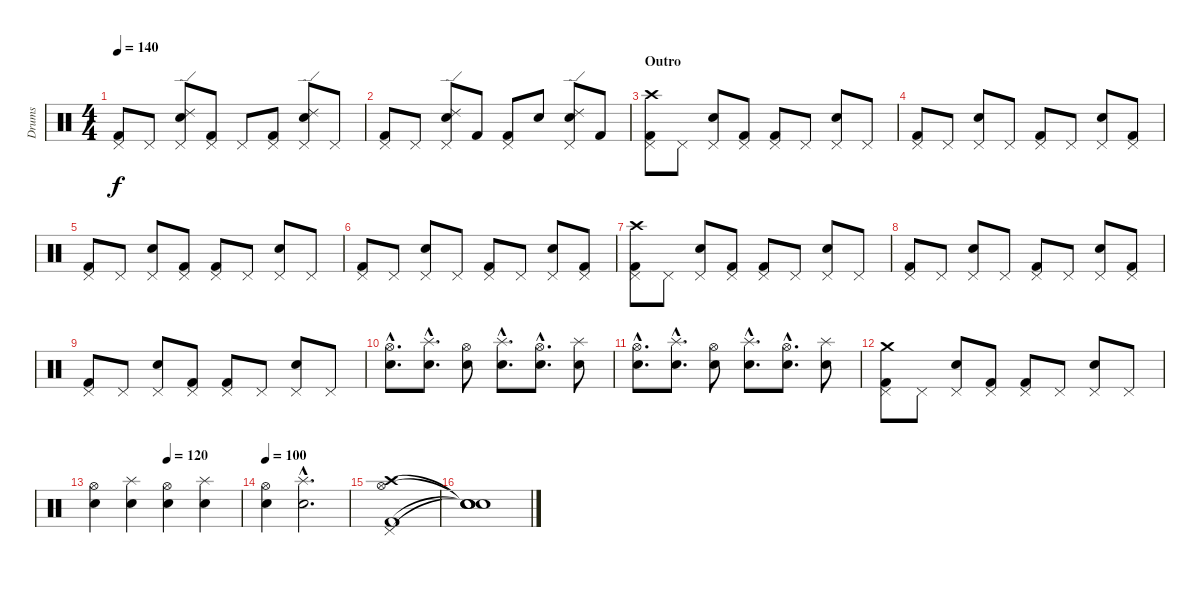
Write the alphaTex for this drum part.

\track ("Drums" "Drums") {instrument percussion}
\staff {score}
\articulation defaults
\ts (4 4)
\tempo 140
\clef neutral
\ks c
("Kick (hit) 2" "Pedal Hi-Hat (hit)").8{dy f} "Pedal Hi-Hat (hit)".8 ("Snare (hit) 2" "Pedal Hi-Hat (hit)" "Ride (edge) 2").8 ("Kick (hit) 2" "Pedal Hi-Hat (hit)").8 "Pedal Hi-Hat (hit)".8 ("Kick (hit) 2" "Pedal Hi-Hat (hit)").8 ("Snare (hit) 2" "Pedal Hi-Hat (hit)" "Ride (edge) 2").8 "Pedal Hi-Hat (hit)".8 |
("Kick (hit) 2" "Pedal Hi-Hat (hit)").8 "Pedal Hi-Hat (hit)".8 ("Snare (hit) 2" "Pedal Hi-Hat (hit)" "Ride (edge) 2").8 "Kick (hit) 2".8 ("Kick (hit) 2" "Pedal Hi-Hat (hit)").8 "Snare (hit) 2".8 ("Snare (hit) 2" "Pedal Hi-Hat (hit)" "Ride (edge) 2").8 "Kick (hit) 2".8 |
\section ("" "Outro")
("Kick (hit) 2" "Pedal Hi-Hat (hit)" "Crash high (hit)").8 "Pedal Hi-Hat (hit)".8 ("Snare (hit) 2" "Pedal Hi-Hat (hit)").8 ("Kick (hit) 2" "Pedal Hi-Hat (hit)").8 ("Kick (hit) 2" "Pedal Hi-Hat (hit)").8 "Pedal Hi-Hat (hit)".8 ("Snare (hit) 2" "Pedal Hi-Hat (hit)").8 "Pedal Hi-Hat (hit)".8 |
("Kick (hit) 2" "Pedal Hi-Hat (hit)").8 "Pedal Hi-Hat (hit)".8 ("Snare (hit) 2" "Pedal Hi-Hat (hit)").8 "Pedal Hi-Hat (hit)".8 ("Kick (hit) 2" "Pedal Hi-Hat (hit)").8 "Pedal Hi-Hat (hit)".8 ("Snare (hit) 2" "Pedal Hi-Hat (hit)").8 ("Kick (hit) 2" "Pedal Hi-Hat (hit)").8 |
("Kick (hit) 2" "Pedal Hi-Hat (hit)").8 "Pedal Hi-Hat (hit)".8 ("Snare (hit) 2" "Pedal Hi-Hat (hit)").8 ("Kick (hit) 2" "Pedal Hi-Hat (hit)").8 ("Kick (hit) 2" "Pedal Hi-Hat (hit)").8 "Pedal Hi-Hat (hit)".8 ("Snare (hit) 2" "Pedal Hi-Hat (hit)").8 "Pedal Hi-Hat (hit)".8 |
("Kick (hit) 2" "Pedal Hi-Hat (hit)").8 "Pedal Hi-Hat (hit)".8 ("Snare (hit) 2" "Pedal Hi-Hat (hit)").8 "Pedal Hi-Hat (hit)".8 ("Kick (hit) 2" "Pedal Hi-Hat (hit)").8 "Pedal Hi-Hat (hit)".8 ("Snare (hit) 2" "Pedal Hi-Hat (hit)").8 ("Kick (hit) 2" "Pedal Hi-Hat (hit)").8 |
("Kick (hit) 2" "Pedal Hi-Hat (hit)" "Crash high (hit)").8 "Pedal Hi-Hat (hit)".8 ("Snare (hit) 2" "Pedal Hi-Hat (hit)").8 ("Kick (hit) 2" "Pedal Hi-Hat (hit)").8 ("Kick (hit) 2" "Pedal Hi-Hat (hit)").8 "Pedal Hi-Hat (hit)".8 ("Snare (hit) 2" "Pedal Hi-Hat (hit)").8 "Pedal Hi-Hat (hit)".8 |
("Kick (hit) 2" "Pedal Hi-Hat (hit)").8 "Pedal Hi-Hat (hit)".8 ("Snare (hit) 2" "Pedal Hi-Hat (hit)").8 "Pedal Hi-Hat (hit)".8 ("Kick (hit) 2" "Pedal Hi-Hat (hit)").8 "Pedal Hi-Hat (hit)".8 ("Snare (hit) 2" "Pedal Hi-Hat (hit)").8 ("Kick (hit) 2" "Pedal Hi-Hat (hit)").8 |
("Kick (hit) 2" "Pedal Hi-Hat (hit)").8 "Pedal Hi-Hat (hit)".8 ("Snare (hit) 2" "Pedal Hi-Hat (hit)").8 ("Kick (hit) 2" "Pedal Hi-Hat (hit)").8 ("Kick (hit) 2" "Pedal Hi-Hat (hit)").8 "Pedal Hi-Hat (hit)".8 ("Snare (hit) 2" "Pedal Hi-Hat (hit)").8 "Pedal Hi-Hat (hit)".8 |
("Snare (hit) 2"{hac} "Hi-Hat (open)"{hac}).8{d} ("Snare (hit) 2"{hac} "Splash (hit)"{hac}).8{d} ("Snare (hit) 2" "Hi-Hat (open)").8 ("Snare (hit) 2"{hac} "Splash (hit)"{hac}).8{d} ("Snare (hit) 2"{hac} "Hi-Hat (open)"{hac}).8{d} ("Snare (hit) 2" "Splash (hit)").8 |
("Snare (hit) 2"{hac} "Hi-Hat (open)"{hac}).8{d} ("Snare (hit) 2"{hac} "Splash (hit)"{hac}).8{d} ("Snare (hit) 2" "Hi-Hat (open)").8 ("Snare (hit) 2"{hac} "Splash (hit)"{hac}).8{d} ("Snare (hit) 2"{hac} "Hi-Hat (open)"{hac}).8{d} ("Snare (hit) 2" "Splash (hit)").8 |
("Kick (hit) 2" "Pedal Hi-Hat (hit)" "Crash medium (hit)").8 "Pedal Hi-Hat (hit)".8 ("Snare (hit) 2" "Pedal Hi-Hat (hit)").8 ("Kick (hit) 2" "Pedal Hi-Hat (hit)").8 ("Kick (hit) 2" "Pedal Hi-Hat (hit)").8 "Pedal Hi-Hat (hit)".8 ("Snare (hit) 2" "Pedal Hi-Hat (hit)").8 "Pedal Hi-Hat (hit)".8 |
\tempo (120 0.5)
("Snare (hit) 2" "Hi-Hat (open)").4 ("Snare (hit) 2" "Splash (hit)").4 ("Snare (hit) 2" "Hi-Hat (open)").4 ("Snare (hit) 2" "Splash (hit)").4 |
\tempo 100
("Snare (hit) 2" "Hi-Hat (open)").4 ("Snare (hit) 2"{hac} "Splash (hit)"{hac}).2{d} |
("Kick (hit) 2" "Pedal Hi-Hat (hit)" "Hi-Hat (open)" "Crash high (hit)").1 |
("Snare (hit)"{t} "Snare (hit)"{t} "Snare (hit)"{t} "Snare (hit)"{t}).1
